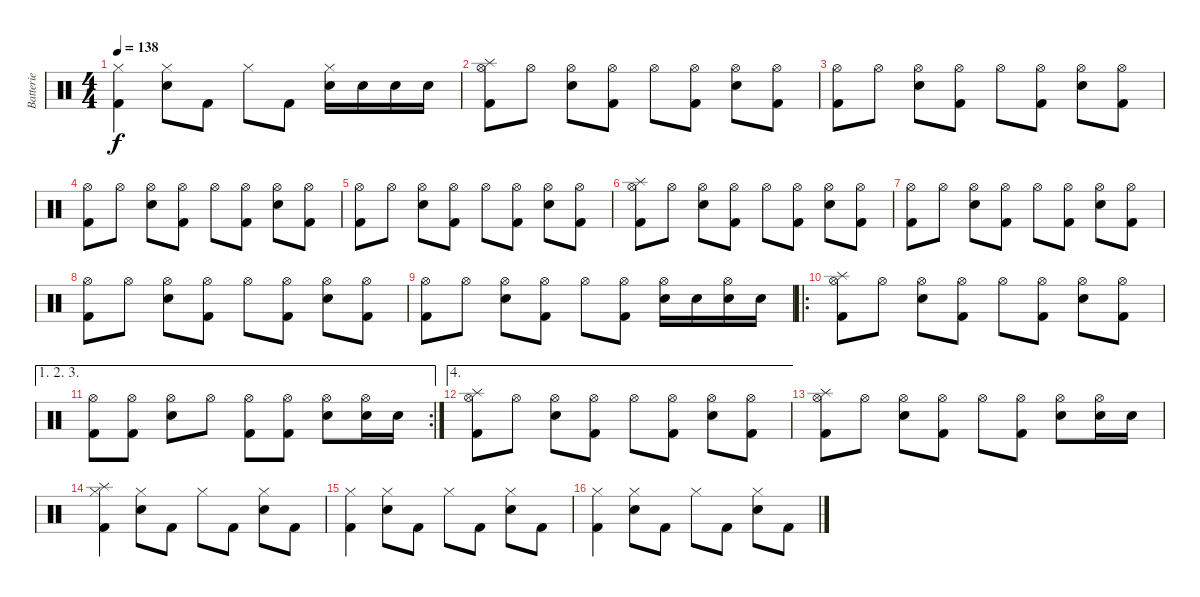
\track ("Batterie" "Batterie") {instrument percussion}
\staff {score}
\articulation defaults
\ts (4 4)
\tempo 138
\clef neutral
\ks c
("Hi-Hat (closed)" "Kick (hit) 2").4{dy f} ("Hi-Hat (closed)" "Snare (hit) 2").8 "Kick (hit) 2".8 "Hi-Hat (closed)".8 "Kick (hit) 2".8 ("Hi-Hat (closed)" "Snare (hit) 2").16 "Snare (hit) 2".16 "Snare (hit) 2".16 "Snare (hit) 2".16 |
("Splash (hit)" "Hi-Hat (open)" "Kick (hit) 2").8 "Hi-Hat (open)".8 ("Hi-Hat (open)" "Snare (hit) 2").8 ("Hi-Hat (open)" "Kick (hit) 2").8 "Hi-Hat (open)".8 ("Hi-Hat (open)" "Kick (hit) 2").8 ("Hi-Hat (open)" "Snare (hit) 2").8 ("Hi-Hat (open)" "Kick (hit) 2").8 |
("Hi-Hat (open)" "Kick (hit) 2").8 "Hi-Hat (open)".8 ("Hi-Hat (open)" "Snare (hit) 2").8 ("Hi-Hat (open)" "Kick (hit) 2").8 "Hi-Hat (open)".8 ("Hi-Hat (open)" "Kick (hit) 2").8 ("Hi-Hat (open)" "Snare (hit) 2").8 ("Hi-Hat (open)" "Kick (hit) 2").8 |
("Hi-Hat (open)" "Kick (hit) 2").8 "Hi-Hat (open)".8 ("Hi-Hat (open)" "Snare (hit) 2").8 ("Hi-Hat (open)" "Kick (hit) 2").8 "Hi-Hat (open)".8 ("Hi-Hat (open)" "Kick (hit) 2").8 ("Hi-Hat (open)" "Snare (hit) 2").8 ("Hi-Hat (open)" "Kick (hit) 2").8 |
("Hi-Hat (open)" "Kick (hit) 2").8 "Hi-Hat (open)".8 ("Hi-Hat (open)" "Snare (hit) 2").8 ("Hi-Hat (open)" "Kick (hit) 2").8 "Hi-Hat (open)".8 ("Hi-Hat (open)" "Kick (hit) 2").8 ("Hi-Hat (open)" "Snare (hit) 2").8 ("Hi-Hat (open)" "Kick (hit) 2").8 |
("Splash (hit)" "Hi-Hat (open)" "Kick (hit) 2").8 "Hi-Hat (open)".8 ("Hi-Hat (open)" "Snare (hit) 2").8 ("Hi-Hat (open)" "Kick (hit) 2").8 "Hi-Hat (open)".8 ("Hi-Hat (open)" "Kick (hit) 2").8 ("Hi-Hat (open)" "Snare (hit) 2").8 ("Hi-Hat (open)" "Kick (hit) 2").8 |
("Hi-Hat (open)" "Kick (hit) 2").8 "Hi-Hat (open)".8 ("Hi-Hat (open)" "Snare (hit) 2").8 ("Hi-Hat (open)" "Kick (hit) 2").8 "Hi-Hat (open)".8 ("Hi-Hat (open)" "Kick (hit) 2").8 ("Hi-Hat (open)" "Snare (hit) 2").8 ("Hi-Hat (open)" "Kick (hit) 2").8 |
("Hi-Hat (open)" "Kick (hit) 2").8 "Hi-Hat (open)".8 ("Hi-Hat (open)" "Snare (hit) 2").8 ("Hi-Hat (open)" "Kick (hit) 2").8 "Hi-Hat (open)".8 ("Hi-Hat (open)" "Kick (hit) 2").8 ("Hi-Hat (open)" "Snare (hit) 2").8 ("Hi-Hat (open)" "Kick (hit) 2").8 |
("Hi-Hat (open)" "Kick (hit) 2").8 "Hi-Hat (open)".8 ("Hi-Hat (open)" "Snare (hit) 2").8 ("Hi-Hat (open)" "Kick (hit) 2").8 "Hi-Hat (open)".8 ("Hi-Hat (open)" "Kick (hit) 2").8 ("Hi-Hat (open)" "Snare (hit) 2").16 "Snare (hit) 2".16 ("Hi-Hat (open)" "Snare (hit) 2").16 "Snare (hit) 2".16 |
\ro
("Splash (hit)" "Hi-Hat (open)" "Kick (hit) 2").8 "Hi-Hat (open)".8 ("Hi-Hat (open)" "Snare (hit) 2").8 ("Hi-Hat (open)" "Kick (hit) 2").8 "Hi-Hat (open)".8 ("Hi-Hat (open)" "Kick (hit) 2").8 ("Hi-Hat (open)" "Snare (hit) 2").8 ("Hi-Hat (open)" "Kick (hit) 2").8 |
\ae (1 2 3)
\rc 2
("Hi-Hat (open)" "Kick (hit) 2").8 ("Hi-Hat (open)" "Kick (hit) 2").8 ("Hi-Hat (open)" "Snare (hit) 2").8 "Hi-Hat (open)".8 ("Hi-Hat (open)" "Kick (hit) 2").8 ("Hi-Hat (open)" "Kick (hit) 2").8 ("Hi-Hat (open)" "Snare (hit) 2").8 ("Hi-Hat (open)" "Snare (hit) 2").16 "Snare (hit) 2".16 |
\ae 4
("Splash (hit)" "Hi-Hat (open)" "Kick (hit) 2").8 "Hi-Hat (open)".8 ("Hi-Hat (open)" "Snare (hit) 2").8 ("Hi-Hat (open)" "Kick (hit) 2").8 "Hi-Hat (open)".8 ("Hi-Hat (open)" "Kick (hit) 2").8 ("Hi-Hat (open)" "Snare (hit) 2").8 ("Hi-Hat (open)" "Kick (hit) 2").8 |
("Splash (hit)" "Hi-Hat (open)" "Kick (hit) 2").8 "Hi-Hat (open)".8 ("Hi-Hat (open)" "Snare (hit) 2").8 ("Hi-Hat (open)" "Kick (hit) 2").8 "Hi-Hat (open)".8 ("Hi-Hat (open)" "Kick (hit) 2").8 ("Hi-Hat (open)" "Snare (hit) 2").8 ("Hi-Hat (open)" "Snare (hit) 2").16 "Snare (hit) 2".16 |
("Splash (hit)" "Hi-Hat (closed)" "Kick (hit) 2").4 ("Hi-Hat (closed)" "Snare (hit) 2").8 "Kick (hit) 2".8 "Hi-Hat (closed)".8 "Kick (hit) 2".8 ("Hi-Hat (closed)" "Snare (hit) 2").8 "Kick (hit) 2".8 |
("Hi-Hat (closed)" "Kick (hit) 2").4 ("Hi-Hat (closed)" "Snare (hit) 2").8 "Kick (hit) 2".8 "Hi-Hat (closed)".8 "Kick (hit) 2".8 ("Hi-Hat (closed)" "Snare (hit) 2").8 "Kick (hit) 2".8 |
("Hi-Hat (closed)" "Kick (hit) 2").4 ("Hi-Hat (closed)" "Snare (hit) 2").8 "Kick (hit) 2".8 "Hi-Hat (closed)".8 "Kick (hit) 2".8 ("Hi-Hat (closed)" "Snare (hit) 2").8 "Kick (hit) 2".8
